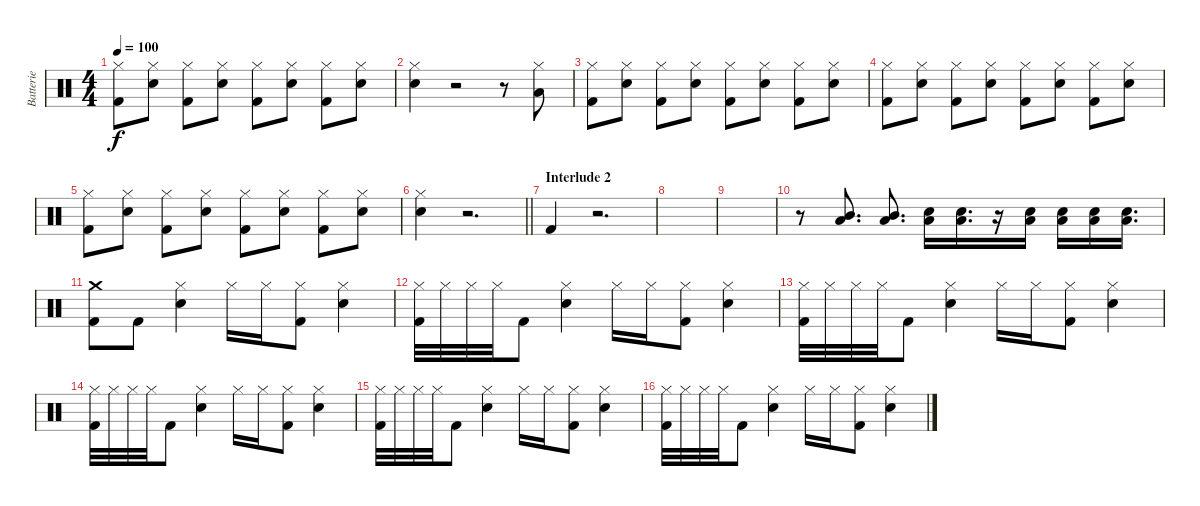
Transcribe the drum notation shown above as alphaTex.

\track ("Batterie" "Batterie") {instrument percussion}
\staff {score}
\articulation defaults
\ts (4 4)
\tempo 100
\clef neutral
\ks c
("Kick (hit) 2" "Hi-Hat (closed)").8{dy f} ("Electric Snare (hit)" "Hi-Hat (closed)").8 ("Kick (hit) 2" "Hi-Hat (closed)").8 ("Electric Snare (hit)" "Hi-Hat (closed)").8 ("Kick (hit) 2" "Hi-Hat (closed)").8 ("Electric Snare (hit)" "Hi-Hat (closed)").8 ("Kick (hit) 2" "Hi-Hat (closed)").8 ("Electric Snare (hit)" "Hi-Hat (closed)").8 |
("Electric Snare (hit)" "Hi-Hat (closed)").4 r.2 r.8 ("Low Tom (hit)" "Hi-Hat (closed)").8 |
("Kick (hit) 2" "Hi-Hat (closed)").8 ("Electric Snare (hit)" "Hi-Hat (closed)").8 ("Kick (hit) 2" "Hi-Hat (closed)").8 ("Electric Snare (hit)" "Hi-Hat (closed)").8 ("Kick (hit) 2" "Hi-Hat (closed)").8 ("Electric Snare (hit)" "Hi-Hat (closed)").8 ("Kick (hit) 2" "Hi-Hat (closed)").8 ("Electric Snare (hit)" "Hi-Hat (closed)").8 |
("Kick (hit) 2" "Hi-Hat (closed)").8 ("Electric Snare (hit)" "Hi-Hat (closed)").8 ("Kick (hit) 2" "Hi-Hat (closed)").8 ("Electric Snare (hit)" "Hi-Hat (closed)").8 ("Kick (hit) 2" "Hi-Hat (closed)").8 ("Electric Snare (hit)" "Hi-Hat (closed)").8 ("Kick (hit) 2" "Hi-Hat (closed)").8 ("Electric Snare (hit)" "Hi-Hat (closed)").8 |
("Kick (hit) 2" "Hi-Hat (closed)").8 ("Electric Snare (hit)" "Hi-Hat (closed)").8 ("Kick (hit) 2" "Hi-Hat (closed)").8 ("Electric Snare (hit)" "Hi-Hat (closed)").8 ("Kick (hit) 2" "Hi-Hat (closed)").8 ("Electric Snare (hit)" "Hi-Hat (closed)").8 ("Kick (hit) 2" "Hi-Hat (closed)").8 ("Electric Snare (hit)" "Hi-Hat (closed)").8 |
\barLineRight lightlight
("Electric Snare (hit)" "Hi-Hat (closed)").4 r.2{d} |
\section ("" "Interlude 2")
"Kick (hit) 2".4 r.2{d} |
|
|
r.8 ("Mid Tom (hit)" "Low Tom (hit)").8{d} ("Mid Tom (hit)" "Low Tom (hit)").8{d} ("Electric Snare (hit)" "Low Tom (hit)").16 ("Electric Snare (hit)" "Low Tom (hit)").16{d} r.16 ("Electric Snare (hit)" "Low Tom (hit)").16 ("Electric Snare (hit)" "Low Tom (hit)").16 ("Electric Snare (hit)" "Low Tom (hit)").16 ("Electric Snare (hit)" "Low Tom (hit)").16{d} |
("Crash medium (hit)" "Kick (hit) 2").8 "Kick (hit) 2".8 ("Electric Snare (hit)" "Hi-Hat (closed)").4 "Hi-Hat (closed)".16 "Hi-Hat (closed)".16 ("Kick (hit) 2" "Hi-Hat (closed)").8 ("Electric Snare (hit)" "Hi-Hat (closed)").4 |
("Kick (hit) 2" "Hi-Hat (closed)").32 "Hi-Hat (closed)".32 "Hi-Hat (closed)".32 "Hi-Hat (closed)".32 "Kick (hit) 2".8 ("Electric Snare (hit)" "Hi-Hat (closed)").4 "Hi-Hat (closed)".16 "Hi-Hat (closed)".16 ("Kick (hit) 2" "Hi-Hat (closed)").8 ("Electric Snare (hit)" "Hi-Hat (closed)").4 |
("Kick (hit) 2" "Hi-Hat (closed)").32 "Hi-Hat (closed)".32 "Hi-Hat (closed)".32 "Hi-Hat (closed)".32 "Kick (hit) 2".8 ("Electric Snare (hit)" "Hi-Hat (closed)").4 "Hi-Hat (closed)".16 "Hi-Hat (closed)".16 ("Kick (hit) 2" "Hi-Hat (closed)").8 ("Electric Snare (hit)" "Hi-Hat (closed)").4 |
("Kick (hit) 2" "Hi-Hat (closed)").32 "Hi-Hat (closed)".32 "Hi-Hat (closed)".32 "Hi-Hat (closed)".32 "Kick (hit) 2".8 ("Electric Snare (hit)" "Hi-Hat (closed)").4 "Hi-Hat (closed)".16 "Hi-Hat (closed)".16 ("Kick (hit) 2" "Hi-Hat (closed)").8 ("Electric Snare (hit)" "Hi-Hat (closed)").4 |
("Kick (hit) 2" "Hi-Hat (closed)").32 "Hi-Hat (closed)".32 "Hi-Hat (closed)".32 "Hi-Hat (closed)".32 "Kick (hit) 2".8 ("Electric Snare (hit)" "Hi-Hat (closed)").4 "Hi-Hat (closed)".16 "Hi-Hat (closed)".16 ("Kick (hit) 2" "Hi-Hat (closed)").8 ("Electric Snare (hit)" "Hi-Hat (closed)").4 |
("Kick (hit) 2" "Hi-Hat (closed)").32 "Hi-Hat (closed)".32 "Hi-Hat (closed)".32 "Hi-Hat (closed)".32 "Kick (hit) 2".8 ("Electric Snare (hit)" "Hi-Hat (closed)").4 "Hi-Hat (closed)".16 "Hi-Hat (closed)".16 ("Kick (hit) 2" "Hi-Hat (closed)").8 ("Electric Snare (hit)" "Hi-Hat (closed)").4
